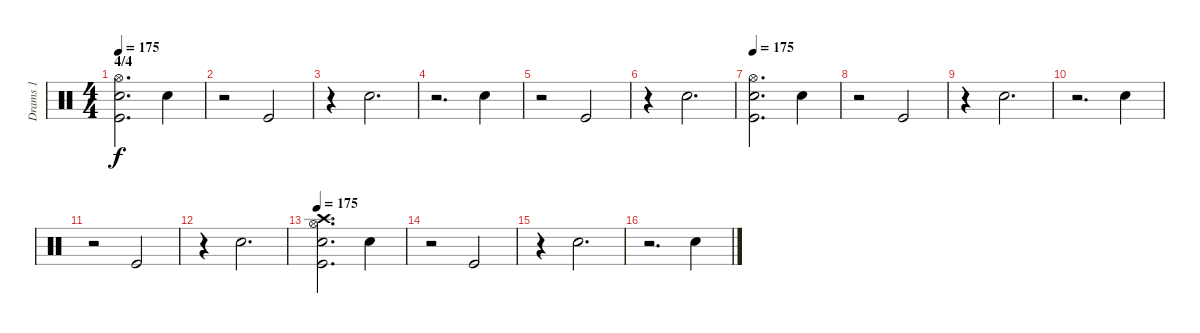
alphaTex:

\track ("Drams 1" "Drams 1") {instrument percussion}
\staff {score}
\articulation defaults
\ts (4 4)
\section ("" "4/4")
\tempo 175
\clef neutral
\ks c
("Kick (hit)" "Snare (hit) 2" "Hi-Hat (open)").2{d dy f} "Snare (hit) 2".4 |
r.2 "Kick (hit)".2 |
r.4 "Snare (hit) 2".2{d} |
r.2{d} "Snare (hit) 2".4 |
r.2 "Kick (hit)".2 |
r.4 "Snare (hit) 2".2{d} |
\tempo 175
("Kick (hit)" "Snare (hit) 2" "Hi-Hat (open)").2{d} "Snare (hit) 2".4 |
r.2 "Kick (hit)".2 |
r.4 "Snare (hit) 2".2{d} |
r.2{d} "Snare (hit) 2".4 |
r.2 "Kick (hit)".2 |
r.4 "Snare (hit) 2".2{d} |
\tempo 175
("Kick (hit)" "Snare (hit) 2" "Hi-Hat (open)" "Crash high (hit)").2{d} "Snare (hit) 2".4 |
r.2 "Kick (hit)".2 |
r.4 "Snare (hit) 2".2{d} |
r.2{d} "Snare (hit) 2".4
